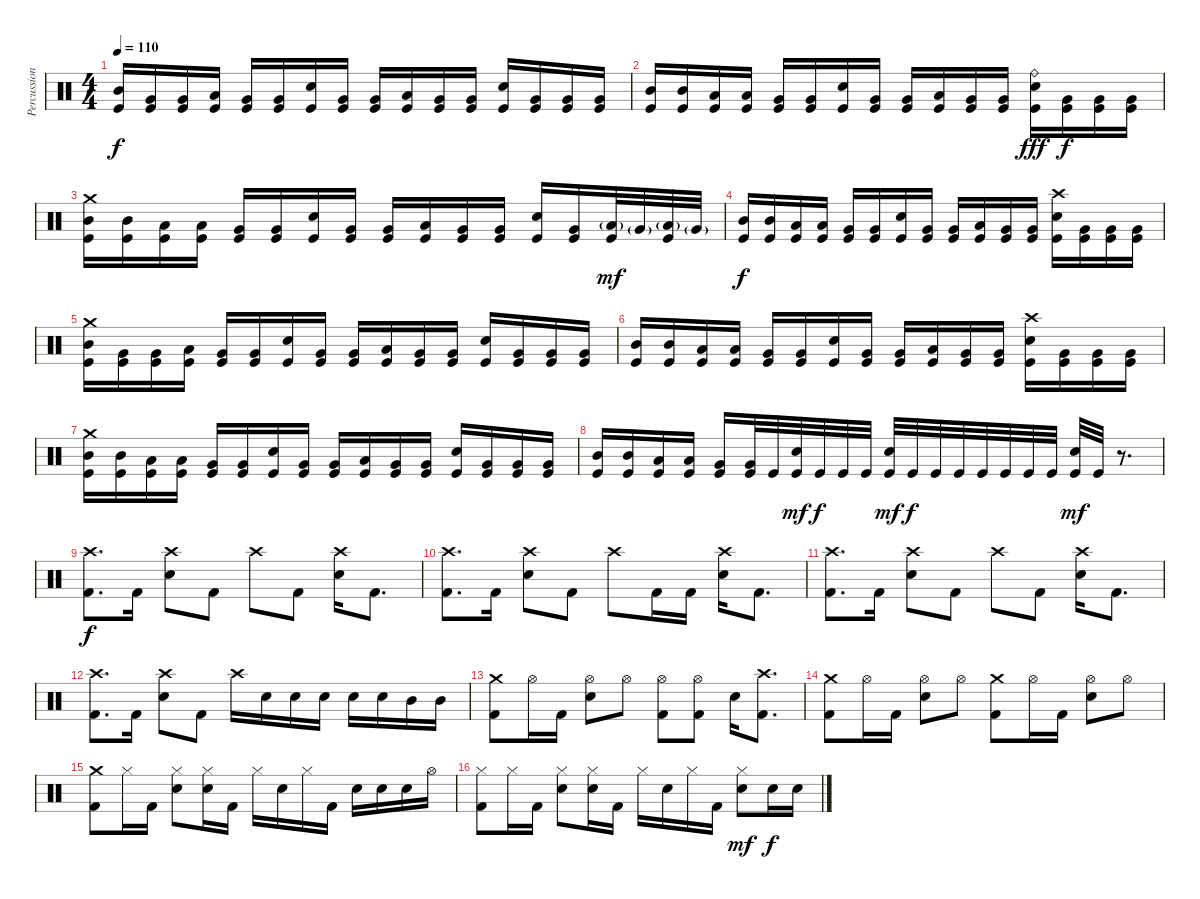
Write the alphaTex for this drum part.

\track ("Percussion" "Percussion") {instrument percussion}
\staff {score}
\articulation defaults
\ts (4 4)
\tempo 110
\clef neutral
\ks c
("Mid Tom (hit)" "Kick (hit)").16{dy f} ("Very Low Tom (hit)" "Kick (hit)").16 ("Very Low Tom (hit)" "Kick (hit)").16 ("Low Tom (hit)" "Kick (hit)").16 ("Very Low Tom (hit)" "Kick (hit)").16 ("Very Low Tom (hit)" "Kick (hit)").16 ("Electric Snare (hit)" "Kick (hit)").16 ("Very Low Tom (hit)" "Kick (hit)").16 ("Very Low Tom (hit)" "Kick (hit)").16 ("Low Tom (hit)" "Kick (hit)").16 ("Very Low Tom (hit)" "Kick (hit)").16 ("Very Low Tom (hit)" "Kick (hit)").16 ("Electric Snare (hit)" "Kick (hit)").16 ("Very Low Tom (hit)" "Kick (hit)").16 ("Very Low Tom (hit)" "Kick (hit)").16 ("Very Low Tom (hit)" "Kick (hit)").16 |
("Mid Tom (hit)" "Kick (hit)").16 ("Mid Tom (hit)" "Kick (hit)").16 ("Low Tom (hit)" "Kick (hit)").16 ("Low Tom (hit)" "Kick (hit)").16 ("Very Low Tom (hit)" "Kick (hit)").16 ("Very Low Tom (hit)" "Kick (hit)").16 ("Electric Snare (hit)" "Kick (hit)").16 ("Very Low Tom (hit)" "Kick (hit)").16 ("Very Low Tom (hit)" "Kick (hit)").16 ("Low Tom (hit)" "Kick (hit)").16 ("Very Low Tom (hit)" "Kick (hit)").16 ("Very Low Tom (hit)" "Kick (hit)").16 ("Ride (bell)" "Electric Snare (hit)" "Kick (hit)").16{dy fff} ("Very Low Tom (hit)" "Kick (hit)").16{dy f} ("Very Low Tom (hit)" "Kick (hit)").16 ("Very Low Tom (hit)" "Kick (hit)").16 |
("Crash medium (hit)" "Mid Tom (hit)" "Kick (hit)").16 ("Mid Tom (hit)" "Kick (hit)").16 ("Low Tom (hit)" "Kick (hit)").16 ("Low Tom (hit)" "Kick (hit)").16 ("Very Low Tom (hit)" "Kick (hit)").16 ("Very Low Tom (hit)" "Kick (hit)").16 ("Electric Snare (hit)" "Kick (hit)").16 ("Very Low Tom (hit)" "Kick (hit)").16 ("Very Low Tom (hit)" "Kick (hit)").16 ("Low Tom (hit)" "Kick (hit)").16 ("Very Low Tom (hit)" "Kick (hit)").16 ("Very Low Tom (hit)" "Kick (hit)").16 ("Electric Snare (hit)" "Kick (hit)").16 ("Very Low Tom (hit)" "Kick (hit)").16 ("Low Tom (hit)"{g} "Kick (hit)").32{dy mf} "Very Low Tom (hit)"{g}.32 ("Low Tom (hit)"{g} "Kick (hit)").32 "Very Low Tom (hit)"{g}.32 |
("Mid Tom (hit)" "Kick (hit)").16{dy f} ("Mid Tom (hit)" "Kick (hit)").16 ("Low Tom (hit)" "Kick (hit)").16 ("Low Tom (hit)" "Kick (hit)").16 ("Very Low Tom (hit)" "Kick (hit)").16 ("Very Low Tom (hit)" "Kick (hit)").16 ("Electric Snare (hit)" "Kick (hit)").16 ("Very Low Tom (hit)" "Kick (hit)").16 ("Very Low Tom (hit)" "Kick (hit)").16 ("Low Tom (hit)" "Kick (hit)").16 ("Very Low Tom (hit)" "Kick (hit)").16 ("Very Low Tom (hit)" "Kick (hit)").16 ("Crash high (hit)" "Electric Snare (hit)" "Kick (hit)").16 ("Very Low Tom (hit)" "Kick (hit)").16 ("Very Low Tom (hit)" "Kick (hit)").16 ("Very Low Tom (hit)" "Kick (hit)").16 |
("Crash medium (hit)" "Mid Tom (hit)" "Kick (hit)").16 ("Very Low Tom (hit)" "Kick (hit)").16 ("Very Low Tom (hit)" "Kick (hit)").16 ("Low Tom (hit)" "Kick (hit)").16 ("Very Low Tom (hit)" "Kick (hit)").16 ("Very Low Tom (hit)" "Kick (hit)").16 ("Electric Snare (hit)" "Kick (hit)").16 ("Very Low Tom (hit)" "Kick (hit)").16 ("Very Low Tom (hit)" "Kick (hit)").16 ("Low Tom (hit)" "Kick (hit)").16 ("Very Low Tom (hit)" "Kick (hit)").16 ("Very Low Tom (hit)" "Kick (hit)").16 ("Electric Snare (hit)" "Kick (hit)").16 ("Very Low Tom (hit)" "Kick (hit)").16 ("Very Low Tom (hit)" "Kick (hit)").16 ("Very Low Tom (hit)" "Kick (hit)").16 |
("Mid Tom (hit)" "Kick (hit)").16 ("Mid Tom (hit)" "Kick (hit)").16 ("Low Tom (hit)" "Kick (hit)").16 ("Low Tom (hit)" "Kick (hit)").16 ("Very Low Tom (hit)" "Kick (hit)").16 ("Very Low Tom (hit)" "Kick (hit)").16 ("Electric Snare (hit)" "Kick (hit)").16 ("Very Low Tom (hit)" "Kick (hit)").16 ("Very Low Tom (hit)" "Kick (hit)").16 ("Low Tom (hit)" "Kick (hit)").16 ("Very Low Tom (hit)" "Kick (hit)").16 ("Very Low Tom (hit)" "Kick (hit)").16 ("Crash high (hit)" "Electric Snare (hit)" "Kick (hit)").16 ("Very Low Tom (hit)" "Kick (hit)").16 ("Very Low Tom (hit)" "Kick (hit)").16 ("Very Low Tom (hit)" "Kick (hit)").16 |
("Crash medium (hit)" "Mid Tom (hit)" "Kick (hit)").16 ("Mid Tom (hit)" "Kick (hit)").16 ("Low Tom (hit)" "Kick (hit)").16 ("Low Tom (hit)" "Kick (hit)").16 ("Very Low Tom (hit)" "Kick (hit)").16 ("Very Low Tom (hit)" "Kick (hit)").16 ("Electric Snare (hit)" "Kick (hit)").16 ("Very Low Tom (hit)" "Kick (hit)").16 ("Very Low Tom (hit)" "Kick (hit)").16 ("Low Tom (hit)" "Kick (hit)").16 ("Very Low Tom (hit)" "Kick (hit)").16 ("Very Low Tom (hit)" "Kick (hit)").16 ("Electric Snare (hit)" "Kick (hit)").16 ("Very Low Tom (hit)" "Kick (hit)").16 ("Very Low Tom (hit)" "Kick (hit)").16 ("Very Low Tom (hit)" "Kick (hit)").16 |
("Mid Tom (hit)" "Kick (hit)").16 ("Mid Tom (hit)" "Kick (hit)").16 ("Low Tom (hit)" "Kick (hit)").16 ("Low Tom (hit)" "Kick (hit)").16 ("Very Low Tom (hit)" "Kick (hit)").16 ("Very Low Tom (hit)" "Kick (hit)").32 "Kick (hit)".32 ("Electric Snare (hit)" "Kick (hit)").32{dy mf} "Kick (hit)".32{dy f} "Kick (hit)".32 "Kick (hit)".32 ("Electric Snare (hit)" "Kick (hit)").32{dy mf} "Kick (hit)".32{dy f} "Kick (hit)".32 "Kick (hit)".32 "Kick (hit)".32 "Kick (hit)".32 "Kick (hit)".32 "Kick (hit)".32 ("Electric Snare (hit)" "Kick (hit)").32{dy mf} "Kick (hit)".32 r.8{d} |
("Crash high (hit)" "Kick (hit) 2").8{d dy f} "Kick (hit) 2".16 ("Crash high (hit)" "Electric Snare (hit)").8 "Kick (hit) 2".8 "Crash high (hit)".8 "Kick (hit) 2".8 ("Crash high (hit)" "Electric Snare (hit)").16 "Kick (hit) 2".8{d} |
("Crash high (hit)" "Kick (hit) 2").8{d} "Kick (hit) 2".16 ("Crash high (hit)" "Electric Snare (hit)").8 "Kick (hit) 2".8 "Crash high (hit)".8 "Kick (hit) 2".16 "Kick (hit) 2".16 ("Crash high (hit)" "Electric Snare (hit)").16 "Kick (hit) 2".8{d} |
("Crash high (hit)" "Kick (hit) 2").8{d} "Kick (hit) 2".16 ("Crash high (hit)" "Electric Snare (hit)").8 "Kick (hit) 2".8 "Crash high (hit)".8 "Kick (hit) 2".8 ("Crash high (hit)" "Electric Snare (hit)").16 "Kick (hit) 2".8{d} |
("Crash high (hit)" "Kick (hit) 2").8{d} "Kick (hit) 2".16 ("Crash high (hit)" "Electric Snare (hit)").8 "Kick (hit) 2".8 "Crash high (hit)".16 "Electric Snare (hit)".16 "Electric Snare (hit)".16 "Electric Snare (hit)".16 "Electric Snare (hit)".16 "Electric Snare (hit)".16 "Mid Tom (hit)".16 "Mid Tom (hit)".16 |
("Crash medium (hit)" "Kick (hit) 2").8 "Hi-Hat (open)".16 "Kick (hit) 2".16 ("Hi-Hat (open)" "Electric Snare (hit)").8 "Hi-Hat (open)".8 ("Hi-Hat (open)" "Kick (hit) 2").8 ("Hi-Hat (open)" "Kick (hit) 2").8 "Electric Snare (hit)".16 ("Crash high (hit)" "Kick (hit) 2").8{d} |
("Crash medium (hit)" "Kick (hit) 2").8 "Hi-Hat (open)".16 "Kick (hit) 2".16 ("Hi-Hat (open)" "Electric Snare (hit)").8 "Hi-Hat (open)".8 ("Crash medium (hit)" "Kick (hit) 2").8 "Hi-Hat (open)".16 "Kick (hit) 2".16 ("Hi-Hat (open)" "Electric Snare (hit)").8 "Hi-Hat (open)".8 |
("Crash medium (hit)" "Kick (hit) 2").8 "Hi-Hat (closed)".16 "Kick (hit) 2".16 ("Hi-Hat (closed)" "Electric Snare (hit)").8 ("Hi-Hat (closed)" "Electric Snare (hit)").16 "Kick (hit) 2".16 "Hi-Hat (closed)".16 "Electric Snare (hit)".16 "Hi-Hat (closed)".16 "Kick (hit) 2".16 "Electric Snare (hit)".16 "Electric Snare (hit)".16 "Electric Snare (hit)".16 "Hi-Hat (open)".16 |
("Hi-Hat (closed)" "Kick (hit) 2").8 "Hi-Hat (closed)".16 "Kick (hit) 2".16 ("Hi-Hat (closed)" "Electric Snare (hit)").8 ("Hi-Hat (closed)" "Electric Snare (hit)").16 "Kick (hit) 2".16 "Hi-Hat (closed)".16 "Electric Snare (hit)".16 "Hi-Hat (closed)".16 "Kick (hit) 2".16 ("Hi-Hat (closed)" "Electric Snare (hit)").8{dy mf} "Electric Snare (hit)".16{dy f} "Electric Snare (hit)".16
